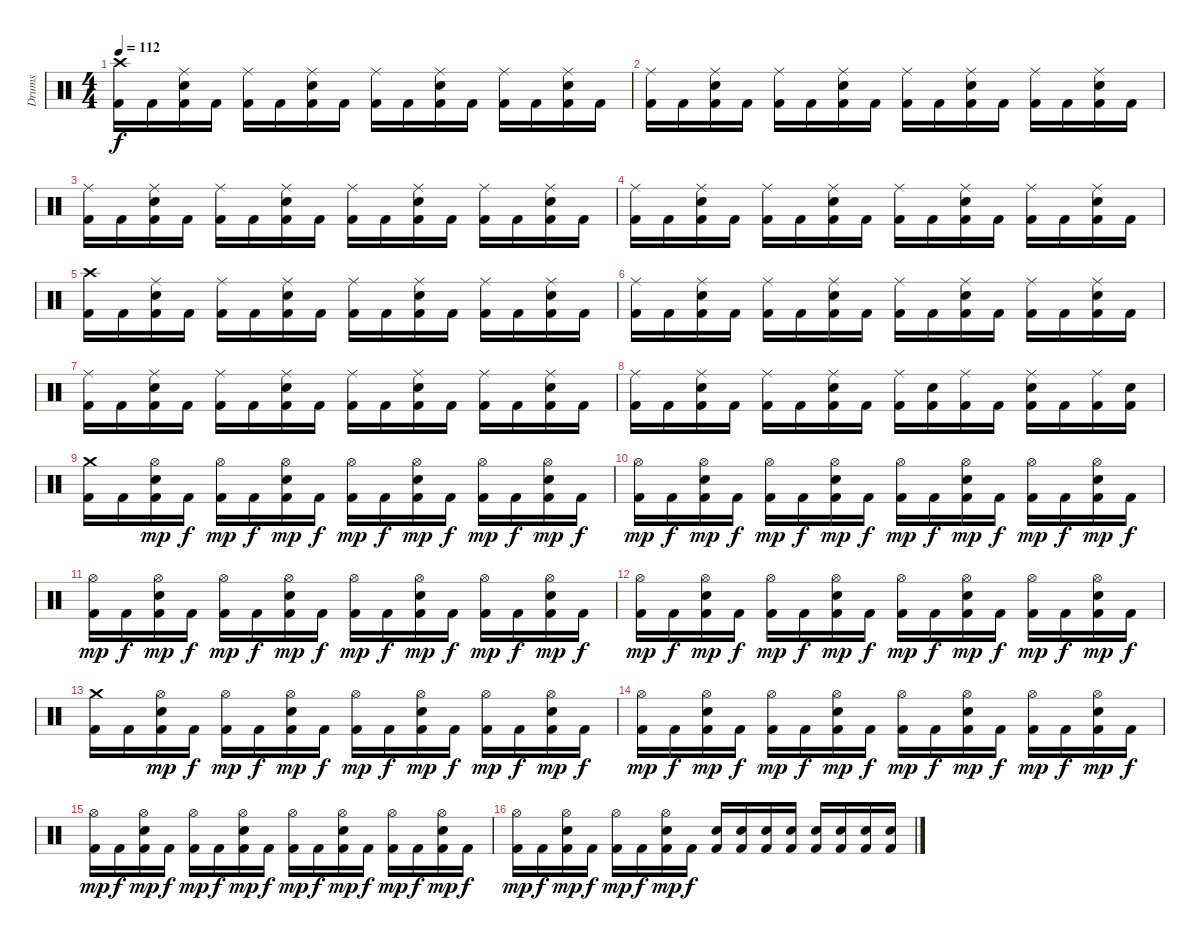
\track ("Drums" "Drums") {instrument percussion}
\staff {score}
\articulation defaults
\ts (4 4)
\tempo 112
\clef neutral
\ks c
("Crash high (hit)" "Kick (hit) 2").16{dy f} "Kick (hit) 2".16 ("Ride (middle)" "Electric Snare (hit)" "Kick (hit) 2").16 "Kick (hit) 2".16 ("Ride (middle)" "Kick (hit) 2").16 "Kick (hit) 2".16 ("Ride (middle)" "Electric Snare (hit)" "Kick (hit) 2").16 "Kick (hit) 2".16 ("Ride (middle)" "Kick (hit) 2").16 "Kick (hit) 2".16 ("Ride (middle)" "Electric Snare (hit)" "Kick (hit) 2").16 "Kick (hit) 2".16 ("Ride (middle)" "Kick (hit) 2").16 "Kick (hit) 2".16 ("Ride (middle)" "Electric Snare (hit)" "Kick (hit) 2").16 "Kick (hit) 2".16 |
("Ride (middle)" "Kick (hit) 2").16 "Kick (hit) 2".16 ("Ride (middle)" "Electric Snare (hit)" "Kick (hit) 2").16 "Kick (hit) 2".16 ("Ride (middle)" "Kick (hit) 2").16 "Kick (hit) 2".16 ("Ride (middle)" "Electric Snare (hit)" "Kick (hit) 2").16 "Kick (hit) 2".16 ("Ride (middle)" "Kick (hit) 2").16 "Kick (hit) 2".16 ("Ride (middle)" "Electric Snare (hit)" "Kick (hit) 2").16 "Kick (hit) 2".16 ("Ride (middle)" "Kick (hit) 2").16 "Kick (hit) 2".16 ("Ride (middle)" "Electric Snare (hit)" "Kick (hit) 2").16 "Kick (hit) 2".16 |
("Ride (middle)" "Kick (hit) 2").16 "Kick (hit) 2".16 ("Ride (middle)" "Electric Snare (hit)" "Kick (hit) 2").16 "Kick (hit) 2".16 ("Ride (middle)" "Kick (hit) 2").16 "Kick (hit) 2".16 ("Ride (middle)" "Electric Snare (hit)" "Kick (hit) 2").16 "Kick (hit) 2".16 ("Ride (middle)" "Kick (hit) 2").16 "Kick (hit) 2".16 ("Ride (middle)" "Electric Snare (hit)" "Kick (hit) 2").16 "Kick (hit) 2".16 ("Ride (middle)" "Kick (hit) 2").16 "Kick (hit) 2".16 ("Ride (middle)" "Electric Snare (hit)" "Kick (hit) 2").16 "Kick (hit) 2".16 |
("Ride (middle)" "Kick (hit) 2").16 "Kick (hit) 2".16 ("Ride (middle)" "Electric Snare (hit)" "Kick (hit) 2").16 "Kick (hit) 2".16 ("Ride (middle)" "Kick (hit) 2").16 "Kick (hit) 2".16 ("Ride (middle)" "Electric Snare (hit)" "Kick (hit) 2").16 "Kick (hit) 2".16 ("Ride (middle)" "Kick (hit) 2").16 "Kick (hit) 2".16 ("Ride (middle)" "Electric Snare (hit)" "Kick (hit) 2").16 "Kick (hit) 2".16 ("Ride (middle)" "Kick (hit) 2").16 "Kick (hit) 2".16 ("Ride (middle)" "Electric Snare (hit)" "Kick (hit) 2").16 "Kick (hit) 2".16 |
("Crash high (hit)" "Kick (hit) 2").16 "Kick (hit) 2".16 ("Ride (middle)" "Electric Snare (hit)" "Kick (hit) 2").16 "Kick (hit) 2".16 ("Ride (middle)" "Kick (hit) 2").16 "Kick (hit) 2".16 ("Ride (middle)" "Electric Snare (hit)" "Kick (hit) 2").16 "Kick (hit) 2".16 ("Ride (middle)" "Kick (hit) 2").16 "Kick (hit) 2".16 ("Ride (middle)" "Electric Snare (hit)" "Kick (hit) 2").16 "Kick (hit) 2".16 ("Ride (middle)" "Kick (hit) 2").16 "Kick (hit) 2".16 ("Ride (middle)" "Electric Snare (hit)" "Kick (hit) 2").16 "Kick (hit) 2".16 |
("Ride (middle)" "Kick (hit) 2").16 "Kick (hit) 2".16 ("Ride (middle)" "Electric Snare (hit)" "Kick (hit) 2").16 "Kick (hit) 2".16 ("Ride (middle)" "Kick (hit) 2").16 "Kick (hit) 2".16 ("Ride (middle)" "Electric Snare (hit)" "Kick (hit) 2").16 "Kick (hit) 2".16 ("Ride (middle)" "Kick (hit) 2").16 "Kick (hit) 2".16 ("Ride (middle)" "Electric Snare (hit)" "Kick (hit) 2").16 "Kick (hit) 2".16 ("Ride (middle)" "Kick (hit) 2").16 "Kick (hit) 2".16 ("Ride (middle)" "Electric Snare (hit)" "Kick (hit) 2").16 "Kick (hit) 2".16 |
("Ride (middle)" "Kick (hit) 2").16 "Kick (hit) 2".16 ("Ride (middle)" "Electric Snare (hit)" "Kick (hit) 2").16 "Kick (hit) 2".16 ("Ride (middle)" "Kick (hit) 2").16 "Kick (hit) 2".16 ("Ride (middle)" "Electric Snare (hit)" "Kick (hit) 2").16 "Kick (hit) 2".16 ("Ride (middle)" "Kick (hit) 2").16 "Kick (hit) 2".16 ("Ride (middle)" "Electric Snare (hit)" "Kick (hit) 2").16 "Kick (hit) 2".16 ("Ride (middle)" "Kick (hit) 2").16 "Kick (hit) 2".16 ("Ride (middle)" "Electric Snare (hit)" "Kick (hit) 2").16 "Kick (hit) 2".16 |
("Ride (middle)" "Kick (hit) 2").16 "Kick (hit) 2".16 ("Ride (middle)" "Electric Snare (hit)" "Kick (hit) 2").16 "Kick (hit) 2".16 ("Ride (middle)" "Kick (hit) 2").16 "Kick (hit) 2".16 ("Ride (middle)" "Electric Snare (hit)" "Kick (hit) 2").16 "Kick (hit) 2".16 ("Ride (middle)" "Kick (hit) 2").16 ("Electric Snare (hit)" "Kick (hit) 2").16 ("Ride (middle)" "Kick (hit) 2").16 "Kick (hit) 2".16 ("Ride (middle)" "Electric Snare (hit)" "Kick (hit) 2").16 "Kick (hit) 2".16 ("Ride (middle)" "Kick (hit) 2").16 ("Electric Snare (hit)" "Kick (hit) 2").16 |
("Crash medium (hit)" "Kick (hit) 2").16 "Kick (hit) 2".16 ("Hi-Hat (open)" "Electric Snare (hit)" "Kick (hit) 2").16{dy mp} "Kick (hit) 2".16{dy f} ("Hi-Hat (open)" "Kick (hit) 2").16{dy mp} "Kick (hit) 2".16{dy f} ("Hi-Hat (open)" "Electric Snare (hit)" "Kick (hit) 2").16{dy mp} "Kick (hit) 2".16{dy f} ("Hi-Hat (open)" "Kick (hit) 2").16{dy mp} "Kick (hit) 2".16{dy f} ("Hi-Hat (open)" "Electric Snare (hit)" "Kick (hit) 2").16{dy mp} "Kick (hit) 2".16{dy f} ("Hi-Hat (open)" "Kick (hit) 2").16{dy mp} "Kick (hit) 2".16{dy f} ("Hi-Hat (open)" "Electric Snare (hit)" "Kick (hit) 2").16{dy mp} "Kick (hit) 2".16{dy f} |
("Hi-Hat (open)" "Kick (hit) 2").16{dy mp} "Kick (hit) 2".16{dy f} ("Hi-Hat (open)" "Electric Snare (hit)" "Kick (hit) 2").16{dy mp} "Kick (hit) 2".16{dy f} ("Hi-Hat (open)" "Kick (hit) 2").16{dy mp} "Kick (hit) 2".16{dy f} ("Hi-Hat (open)" "Electric Snare (hit)" "Kick (hit) 2").16{dy mp} "Kick (hit) 2".16{dy f} ("Hi-Hat (open)" "Kick (hit) 2").16{dy mp} "Kick (hit) 2".16{dy f} ("Hi-Hat (open)" "Electric Snare (hit)" "Kick (hit) 2").16{dy mp} "Kick (hit) 2".16{dy f} ("Hi-Hat (open)" "Kick (hit) 2").16{dy mp} "Kick (hit) 2".16{dy f} ("Hi-Hat (open)" "Electric Snare (hit)" "Kick (hit) 2").16{dy mp} "Kick (hit) 2".16{dy f} |
("Hi-Hat (open)" "Kick (hit) 2").16{dy mp} "Kick (hit) 2".16{dy f} ("Hi-Hat (open)" "Electric Snare (hit)" "Kick (hit) 2").16{dy mp} "Kick (hit) 2".16{dy f} ("Hi-Hat (open)" "Kick (hit) 2").16{dy mp} "Kick (hit) 2".16{dy f} ("Hi-Hat (open)" "Electric Snare (hit)" "Kick (hit) 2").16{dy mp} "Kick (hit) 2".16{dy f} ("Hi-Hat (open)" "Kick (hit) 2").16{dy mp} "Kick (hit) 2".16{dy f} ("Hi-Hat (open)" "Electric Snare (hit)" "Kick (hit) 2").16{dy mp} "Kick (hit) 2".16{dy f} ("Hi-Hat (open)" "Kick (hit) 2").16{dy mp} "Kick (hit) 2".16{dy f} ("Hi-Hat (open)" "Electric Snare (hit)" "Kick (hit) 2").16{dy mp} "Kick (hit) 2".16{dy f} |
("Hi-Hat (open)" "Kick (hit) 2").16{dy mp} "Kick (hit) 2".16{dy f} ("Hi-Hat (open)" "Electric Snare (hit)" "Kick (hit) 2").16{dy mp} "Kick (hit) 2".16{dy f} ("Hi-Hat (open)" "Kick (hit) 2").16{dy mp} "Kick (hit) 2".16{dy f} ("Hi-Hat (open)" "Electric Snare (hit)" "Kick (hit) 2").16{dy mp} "Kick (hit) 2".16{dy f} ("Hi-Hat (open)" "Kick (hit) 2").16{dy mp} "Kick (hit) 2".16{dy f} ("Hi-Hat (open)" "Electric Snare (hit)" "Kick (hit) 2").16{dy mp} "Kick (hit) 2".16{dy f} ("Hi-Hat (open)" "Kick (hit) 2").16{dy mp} "Kick (hit) 2".16{dy f} ("Hi-Hat (open)" "Electric Snare (hit)" "Kick (hit) 2").16{dy mp} "Kick (hit) 2".16{dy f} |
("Crash medium (hit)" "Kick (hit) 2").16 "Kick (hit) 2".16 ("Hi-Hat (open)" "Electric Snare (hit)" "Kick (hit) 2").16{dy mp} "Kick (hit) 2".16{dy f} ("Hi-Hat (open)" "Kick (hit) 2").16{dy mp} "Kick (hit) 2".16{dy f} ("Hi-Hat (open)" "Electric Snare (hit)" "Kick (hit) 2").16{dy mp} "Kick (hit) 2".16{dy f} ("Hi-Hat (open)" "Kick (hit) 2").16{dy mp} "Kick (hit) 2".16{dy f} ("Hi-Hat (open)" "Electric Snare (hit)" "Kick (hit) 2").16{dy mp} "Kick (hit) 2".16{dy f} ("Hi-Hat (open)" "Kick (hit) 2").16{dy mp} "Kick (hit) 2".16{dy f} ("Hi-Hat (open)" "Electric Snare (hit)" "Kick (hit) 2").16{dy mp} "Kick (hit) 2".16{dy f} |
("Hi-Hat (open)" "Kick (hit) 2").16{dy mp} "Kick (hit) 2".16{dy f} ("Hi-Hat (open)" "Electric Snare (hit)" "Kick (hit) 2").16{dy mp} "Kick (hit) 2".16{dy f} ("Hi-Hat (open)" "Kick (hit) 2").16{dy mp} "Kick (hit) 2".16{dy f} ("Hi-Hat (open)" "Electric Snare (hit)" "Kick (hit) 2").16{dy mp} "Kick (hit) 2".16{dy f} ("Hi-Hat (open)" "Kick (hit) 2").16{dy mp} "Kick (hit) 2".16{dy f} ("Hi-Hat (open)" "Electric Snare (hit)" "Kick (hit) 2").16{dy mp} "Kick (hit) 2".16{dy f} ("Hi-Hat (open)" "Kick (hit) 2").16{dy mp} "Kick (hit) 2".16{dy f} ("Hi-Hat (open)" "Electric Snare (hit)" "Kick (hit) 2").16{dy mp} "Kick (hit) 2".16{dy f} |
("Hi-Hat (open)" "Kick (hit) 2").16{dy mp} "Kick (hit) 2".16{dy f} ("Hi-Hat (open)" "Electric Snare (hit)" "Kick (hit) 2").16{dy mp} "Kick (hit) 2".16{dy f} ("Hi-Hat (open)" "Kick (hit) 2").16{dy mp} "Kick (hit) 2".16{dy f} ("Hi-Hat (open)" "Electric Snare (hit)" "Kick (hit) 2").16{dy mp} "Kick (hit) 2".16{dy f} ("Hi-Hat (open)" "Kick (hit) 2").16{dy mp} "Kick (hit) 2".16{dy f} ("Hi-Hat (open)" "Electric Snare (hit)" "Kick (hit) 2").16{dy mp} "Kick (hit) 2".16{dy f} ("Hi-Hat (open)" "Kick (hit) 2").16{dy mp} "Kick (hit) 2".16{dy f} ("Hi-Hat (open)" "Electric Snare (hit)" "Kick (hit) 2").16{dy mp} "Kick (hit) 2".16{dy f} |
("Hi-Hat (open)" "Kick (hit) 2").16{dy mp} "Kick (hit) 2".16{dy f} ("Hi-Hat (open)" "Electric Snare (hit)" "Kick (hit) 2").16{dy mp} "Kick (hit) 2".16{dy f} ("Hi-Hat (open)" "Kick (hit) 2").16{dy mp} "Kick (hit) 2".16{dy f} ("Hi-Hat (open)" "Electric Snare (hit)" "Kick (hit) 2").16{dy mp} "Kick (hit) 2".16{dy f} ("Electric Snare (hit)" "Kick (hit) 2").16 ("Electric Snare (hit)" "Kick (hit) 2").16 ("Electric Snare (hit)" "Kick (hit) 2").16 ("Electric Snare (hit)" "Kick (hit) 2").16 ("Electric Snare (hit)" "Kick (hit) 2").16 ("Electric Snare (hit)" "Kick (hit) 2").16 ("Electric Snare (hit)" "Kick (hit) 2").16 ("Electric Snare (hit)" "Kick (hit) 2").16
